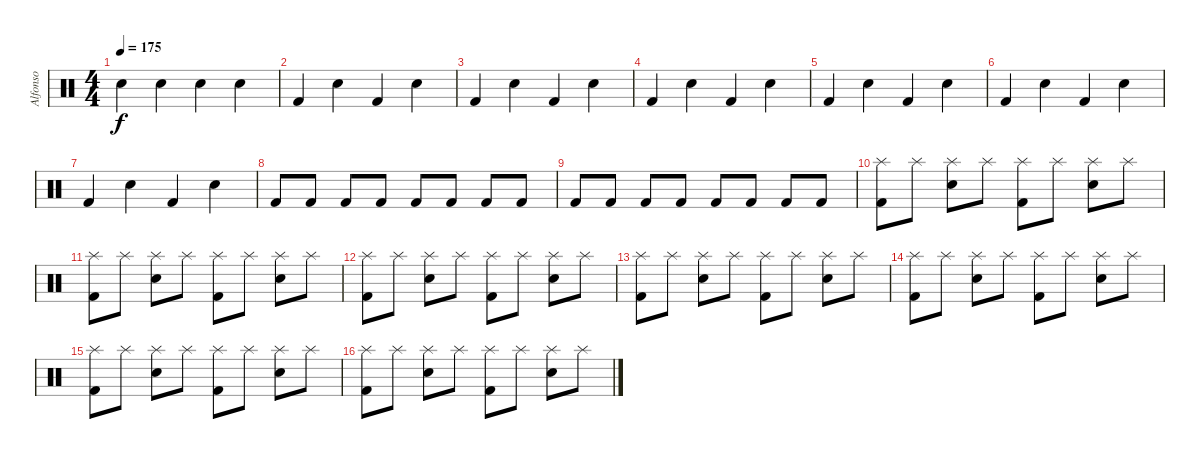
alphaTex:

\track ("Alfonso" "Alfonso") {instrument percussion}
\staff {score}
\articulation defaults
\ts (4 4)
\tempo 175
\clef neutral
\ks c "Electric Snare (hit)".4{dy f} "Electric Snare (hit)".4 "Electric Snare (hit)".4 "Electric Snare (hit)".4
|
"Kick (hit) 2".4 "Electric Snare (hit)".4 "Kick (hit) 2".4 "Electric Snare (hit)".4 |
"Kick (hit) 2".4 "Electric Snare (hit)".4 "Kick (hit) 2".4 "Electric Snare (hit)".4 |
"Kick (hit) 2".4 "Electric Snare (hit)".4 "Kick (hit) 2".4 "Electric Snare (hit)".4 |
"Kick (hit) 2".4 "Electric Snare (hit)".4 "Kick (hit) 2".4 "Electric Snare (hit)".4 |
"Kick (hit) 2".4 "Electric Snare (hit)".4 "Kick (hit) 2".4 "Electric Snare (hit)".4 |
"Kick (hit) 2".4 "Electric Snare (hit)".4 "Kick (hit) 2".4 "Electric Snare (hit)".4 |
"Kick (hit) 2".8 "Kick (hit) 2".8 "Kick (hit) 2".8 "Kick (hit) 2".8 "Kick (hit) 2".8 "Kick (hit) 2".8 "Kick (hit) 2".8 "Kick (hit) 2".8 |
"Kick (hit) 2".8 "Kick (hit) 2".8 "Kick (hit) 2".8 "Kick (hit) 2".8 "Kick (hit) 2".8 "Kick (hit) 2".8 "Kick (hit) 2".8 "Kick (hit) 2".8 |
("Splash (hit)" "Kick (hit) 2").8 "Splash (hit)".8 ("Splash (hit)" "Electric Snare (hit)").8 "Splash (hit)".8 ("Splash (hit)" "Kick (hit) 2").8 "Splash (hit)".8 ("Splash (hit)" "Electric Snare (hit)").8 "Splash (hit)".8 |
("Splash (hit)" "Kick (hit) 2").8 "Splash (hit)".8 ("Splash (hit)" "Electric Snare (hit)").8 "Splash (hit)".8 ("Splash (hit)" "Kick (hit) 2").8 "Splash (hit)".8 ("Splash (hit)" "Electric Snare (hit)").8 "Splash (hit)".8 |
("Splash (hit)" "Kick (hit) 2").8 "Splash (hit)".8 ("Splash (hit)" "Electric Snare (hit)").8 "Splash (hit)".8 ("Splash (hit)" "Kick (hit) 2").8 "Splash (hit)".8 ("Splash (hit)" "Electric Snare (hit)").8 "Splash (hit)".8 |
("Splash (hit)" "Kick (hit) 2").8 "Splash (hit)".8 ("Splash (hit)" "Electric Snare (hit)").8 "Splash (hit)".8 ("Splash (hit)" "Kick (hit) 2").8 "Splash (hit)".8 ("Splash (hit)" "Electric Snare (hit)").8 "Splash (hit)".8 |
("Splash (hit)" "Kick (hit) 2").8 "Splash (hit)".8 ("Splash (hit)" "Electric Snare (hit)").8 "Splash (hit)".8 ("Splash (hit)" "Kick (hit) 2").8 "Splash (hit)".8 ("Splash (hit)" "Electric Snare (hit)").8 "Splash (hit)".8 |
("Splash (hit)" "Kick (hit) 2").8 "Splash (hit)".8 ("Splash (hit)" "Electric Snare (hit)").8 "Splash (hit)".8 ("Splash (hit)" "Kick (hit) 2").8 "Splash (hit)".8 ("Splash (hit)" "Electric Snare (hit)").8 "Splash (hit)".8 |
("Splash (hit)" "Kick (hit) 2").8 "Splash (hit)".8 ("Splash (hit)" "Electric Snare (hit)").8 "Splash (hit)".8 ("Splash (hit)" "Kick (hit) 2").8 "Splash (hit)".8 ("Splash (hit)" "Electric Snare (hit)").8 "Splash (hit)".8
